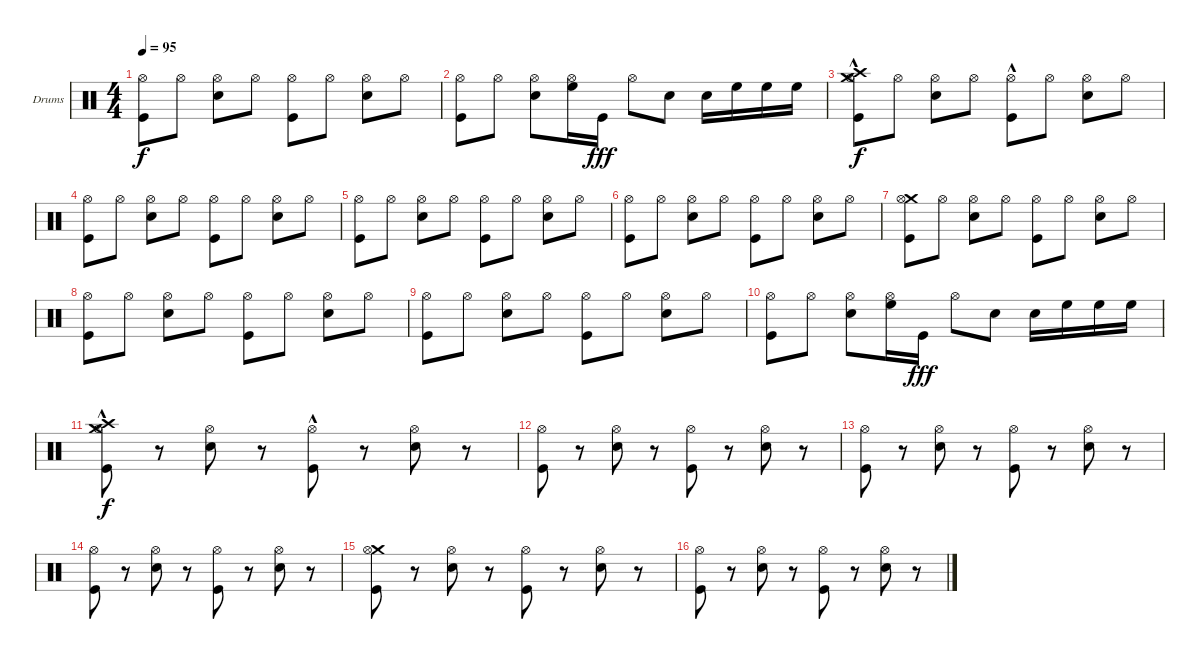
\bracketExtendMode groupsimilarinstruments
\firstSystemTrackNameOrientation horizontal
\otherSystemsTrackNameOrientation horizontal
\track ("Drumkit" "Drums") {solo instrument percussion}
\staff {score}
\articulation defaults
\ts (4 4)
\tempo 95
\clef neutral
\scale
0.5
\ks c
("Hi-Hat (open)" "Kick (hit)").8{dy f} "Hi-Hat (open)".8 ("Hi-Hat (open)" "Snare (hit) 2").8 "Hi-Hat (open)".8 ("Hi-Hat (open)" "Kick (hit)").8 "Hi-Hat (open)".8 ("Hi-Hat (open)" "Snare (hit) 2").8 "Hi-Hat (open)".8 |
\scale
0.5 ("Hi-Hat (open)" "Kick (hit)").8 "Hi-Hat (open)".8 ("Hi-Hat (open)" "Snare (hit) 2").8 ("Hi-Hat (open)" "High Floor Tom (hit)").16 "Kick (hit)".16{dy fff} "Hi-Hat (open)".8 "Snare (hit) 2".8 "Snare (hit) 2".16 "High Floor Tom (hit)".16 "High Floor Tom (hit)".16 "High Floor Tom (hit)".16 |
\scale
0.5 ("Crash medium (hit)" "Crash high (hit)" "Hi-Hat (open)" "Kick (hit)"{hac}).8{dy f} "Hi-Hat (open)".8 ("Hi-Hat (open)" "Snare (hit) 2").8 "Hi-Hat (open)".8 ("Hi-Hat (open)" "Kick (hit)"{hac}).8 "Hi-Hat (open)".8 ("Hi-Hat (open)" "Snare (hit) 2").8 "Hi-Hat (open)".8 |
\scale
0.5 ("Hi-Hat (open)" "Kick (hit)").8 "Hi-Hat (open)".8 ("Hi-Hat (open)" "Snare (hit) 2").8 "Hi-Hat (open)".8 ("Hi-Hat (open)" "Kick (hit)").8 "Hi-Hat (open)".8 ("Hi-Hat (open)" "Snare (hit) 2").8 "Hi-Hat (open)".8 |
\scale
0.5 ("Hi-Hat (open)" "Kick (hit)").8 "Hi-Hat (open)".8 ("Hi-Hat (open)" "Snare (hit) 2").8 "Hi-Hat (open)".8 ("Hi-Hat (open)" "Kick (hit)").8 "Hi-Hat (open)".8 ("Hi-Hat (open)" "Snare (hit) 2").8 "Hi-Hat (open)".8 |
\scale
0.5 ("Hi-Hat (open)" "Kick (hit)").8 "Hi-Hat (open)".8 ("Hi-Hat (open)" "Snare (hit) 2").8 "Hi-Hat (open)".8 ("Hi-Hat (open)" "Kick (hit)").8 "Hi-Hat (open)".8 ("Hi-Hat (open)" "Snare (hit) 2").8 "Hi-Hat (open)".8 |
\scale
0.5 ("Crash medium (hit)" "Hi-Hat (open)" "Kick (hit)").8 "Hi-Hat (open)".8 ("Hi-Hat (open)" "Snare (hit) 2").8 "Hi-Hat (open)".8 ("Hi-Hat (open)" "Kick (hit)").8 "Hi-Hat (open)".8 ("Hi-Hat (open)" "Snare (hit) 2").8 "Hi-Hat (open)".8 |
\scale
0.5 ("Hi-Hat (open)" "Kick (hit)").8 "Hi-Hat (open)".8 ("Hi-Hat (open)" "Snare (hit) 2").8 "Hi-Hat (open)".8 ("Hi-Hat (open)" "Kick (hit)").8 "Hi-Hat (open)".8 ("Hi-Hat (open)" "Snare (hit) 2").8 "Hi-Hat (open)".8 |
\scale
0.5 ("Hi-Hat (open)" "Kick (hit)").8 "Hi-Hat (open)".8 ("Hi-Hat (open)" "Snare (hit) 2").8 "Hi-Hat (open)".8 ("Hi-Hat (open)" "Kick (hit)").8 "Hi-Hat (open)".8 ("Hi-Hat (open)" "Snare (hit) 2").8 "Hi-Hat (open)".8 |
\scale
0.5 ("Hi-Hat (open)" "Kick (hit)").8 "Hi-Hat (open)".8 ("Hi-Hat (open)" "Snare (hit) 2").8 ("Hi-Hat (open)" "High Floor Tom (hit)").16 "Kick (hit)".16{dy fff} "Hi-Hat (open)".8 "Snare (hit) 2".8 "Snare (hit) 2".16 "High Floor Tom (hit)".16 "High Floor Tom (hit)".16 "High Floor Tom (hit)".16 |
\scale
0.5 ("Crash medium (hit)" "Crash high (hit)" "Hi-Hat (open)" "Kick (hit)"{hac}).8{dy f} r.8 ("Hi-Hat (open)" "Snare (hit) 2").8 r.8 ("Hi-Hat (open)" "Kick (hit)"{hac}).8 r.8 ("Hi-Hat (open)" "Snare (hit) 2").8 r.8 |
\scale
0.5 ("Hi-Hat (open)" "Kick (hit)").8 r.8 ("Hi-Hat (open)" "Snare (hit) 2").8 r.8 ("Hi-Hat (open)" "Kick (hit)").8 r.8 ("Hi-Hat (open)" "Snare (hit) 2").8 r.8 |
\scale
0.5 ("Hi-Hat (open)" "Kick (hit)").8 r.8 ("Hi-Hat (open)" "Snare (hit) 2").8 r.8 ("Hi-Hat (open)" "Kick (hit)").8 r.8 ("Hi-Hat (open)" "Snare (hit) 2").8 r.8 |
\scale
0.5 ("Hi-Hat (open)" "Kick (hit)").8 r.8 ("Hi-Hat (open)" "Snare (hit) 2").8 r.8 ("Hi-Hat (open)" "Kick (hit)").8 r.8 ("Hi-Hat (open)" "Snare (hit) 2").8 r.8 |
\scale
0.5 ("Crash medium (hit)" "Hi-Hat (open)" "Kick (hit)").8 r.8 ("Hi-Hat (open)" "Snare (hit) 2").8 r.8 ("Hi-Hat (open)" "Kick (hit)").8 r.8 ("Hi-Hat (open)" "Snare (hit) 2").8 r.8 |
\scale
0.5 ("Hi-Hat (open)" "Kick (hit)").8 r.8 ("Hi-Hat (open)" "Snare (hit) 2").8 r.8 ("Hi-Hat (open)" "Kick (hit)").8 r.8 ("Hi-Hat (open)" "Snare (hit) 2").8 r.8
